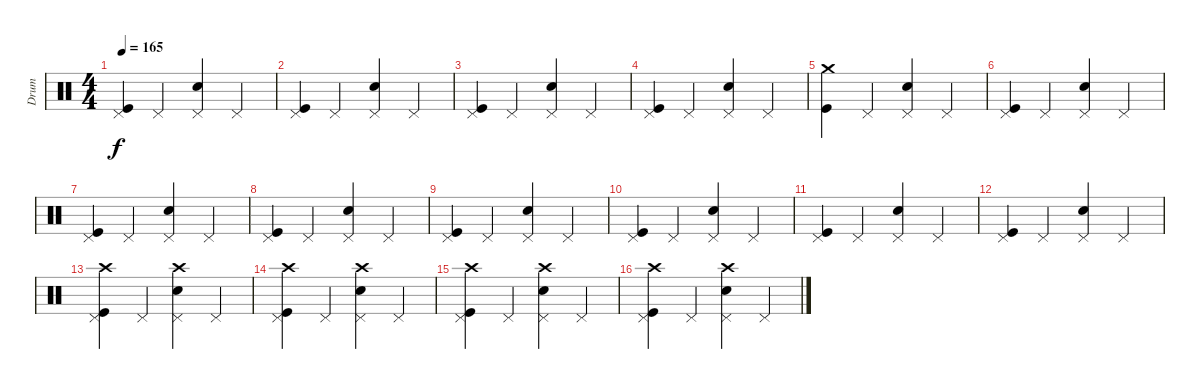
\track ("Drum" "Drum") {instrument percussion}
\staff {score}
\articulation defaults
\ts (4 4)
\tempo 165
\clef neutral
\ks c
("Pedal Hi-Hat (hit)" "Kick (hit)").4{dy f} "Pedal Hi-Hat (hit)".4 ("Pedal Hi-Hat (hit)" "Electric Snare (hit)").4 "Pedal Hi-Hat (hit)".4 |
("Pedal Hi-Hat (hit)" "Kick (hit)").4 "Pedal Hi-Hat (hit)".4 ("Pedal Hi-Hat (hit)" "Electric Snare (hit)").4 "Pedal Hi-Hat (hit)".4 |
("Pedal Hi-Hat (hit)" "Kick (hit)").4 "Pedal Hi-Hat (hit)".4 ("Pedal Hi-Hat (hit)" "Electric Snare (hit)").4 "Pedal Hi-Hat (hit)".4 |
("Pedal Hi-Hat (hit)" "Kick (hit)").4 "Pedal Hi-Hat (hit)".4 ("Pedal Hi-Hat (hit)" "Electric Snare (hit)").4 "Pedal Hi-Hat (hit)".4 |
("Crash medium (hit)" "Kick (hit)").4 "Pedal Hi-Hat (hit)".4 ("Pedal Hi-Hat (hit)" "Electric Snare (hit)").4 "Pedal Hi-Hat (hit)".4 |
("Pedal Hi-Hat (hit)" "Kick (hit)").4 "Pedal Hi-Hat (hit)".4 ("Pedal Hi-Hat (hit)" "Electric Snare (hit)").4 "Pedal Hi-Hat (hit)".4 |
("Pedal Hi-Hat (hit)" "Kick (hit)").4 "Pedal Hi-Hat (hit)".4 ("Pedal Hi-Hat (hit)" "Electric Snare (hit)").4 "Pedal Hi-Hat (hit)".4 |
("Pedal Hi-Hat (hit)" "Kick (hit)").4 "Pedal Hi-Hat (hit)".4 ("Pedal Hi-Hat (hit)" "Electric Snare (hit)").4 "Pedal Hi-Hat (hit)".4 |
("Pedal Hi-Hat (hit)" "Kick (hit)").4 "Pedal Hi-Hat (hit)".4 ("Pedal Hi-Hat (hit)" "Electric Snare (hit)").4 "Pedal Hi-Hat (hit)".4 |
("Pedal Hi-Hat (hit)" "Kick (hit)").4 "Pedal Hi-Hat (hit)".4 ("Pedal Hi-Hat (hit)" "Electric Snare (hit)").4 "Pedal Hi-Hat (hit)".4 |
("Pedal Hi-Hat (hit)" "Kick (hit)").4 "Pedal Hi-Hat (hit)".4 ("Pedal Hi-Hat (hit)" "Electric Snare (hit)").4 "Pedal Hi-Hat (hit)".4 |
("Pedal Hi-Hat (hit)" "Kick (hit)").4 "Pedal Hi-Hat (hit)".4 ("Pedal Hi-Hat (hit)" "Electric Snare (hit)").4 "Pedal Hi-Hat (hit)".4 |
("Crash high (hit)" "Pedal Hi-Hat (hit)" "Kick (hit)").4 "Pedal Hi-Hat (hit)".4 ("Crash high (hit)" "Pedal Hi-Hat (hit)" "Electric Snare (hit)").4 "Pedal Hi-Hat (hit)".4 |
("Crash high (hit)" "Pedal Hi-Hat (hit)" "Kick (hit)").4 "Pedal Hi-Hat (hit)".4 ("Crash high (hit)" "Pedal Hi-Hat (hit)" "Electric Snare (hit)").4 "Pedal Hi-Hat (hit)".4 |
("Crash high (hit)" "Pedal Hi-Hat (hit)" "Kick (hit)").4 "Pedal Hi-Hat (hit)".4 ("Crash high (hit)" "Pedal Hi-Hat (hit)" "Electric Snare (hit)").4 "Pedal Hi-Hat (hit)".4 |
("Crash high (hit)" "Pedal Hi-Hat (hit)" "Kick (hit)").4 "Pedal Hi-Hat (hit)".4 ("Crash high (hit)" "Pedal Hi-Hat (hit)" "Electric Snare (hit)").4 "Pedal Hi-Hat (hit)".4
